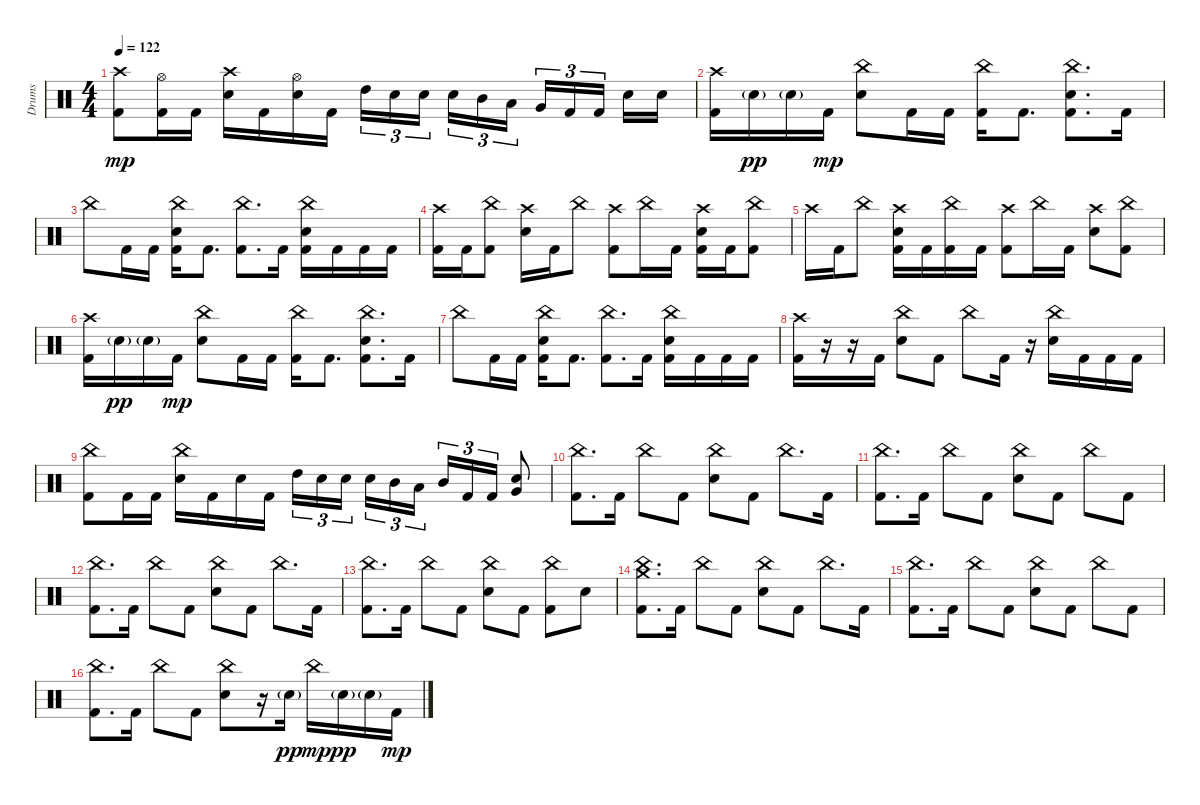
\track ("Drums" "Drums") {instrument percussion}
\staff {score}
\articulation defaults
\ts (4 4)
\tempo 122
\clef neutral
\ks c
("Crash high (hit)" "Kick (hit) 2").8{dy mp} ("Hi-Hat (open)" "Kick (hit) 2").16 "Kick (hit) 2".16 ("Crash high (hit)" "Electric Snare (hit)").16 "Kick (hit) 2".16 ("Hi-Hat (open)" "Electric Snare (hit)").16 "Kick (hit) 2".16 "High Tom (hit)".16{tu (3 2)} "Electric Snare (hit)".16{tu (3 2)} "Electric Snare (hit)".16{tu (3 2) beam splitsecondary} "Electric Snare (hit)".16{tu (3 2)} "Mid Tom (hit)".16{tu (3 2)} "Low Tom (hit)".16{tu (3 2)} "Very Low Tom (hit)".16{tu (3 2)} "Kick (hit) 2".16{tu (3 2)} "Kick (hit) 2".16{tu (3 2) beam splitsecondary} "Electric Snare (hit)".16 "Electric Snare (hit)".16 |
("Crash high (hit)" "Kick (hit) 2").16 "Electric Snare (hit)"{g}.16{dy pp} "Electric Snare (hit)"{g}.16 "Kick (hit) 2".16{dy mp} ("China (hit)" "Electric Snare (hit)").8 "Kick (hit) 2".16 "Kick (hit) 2".16 ("China (hit)" "Kick (hit) 2").16 "Kick (hit) 2".8{d} ("Electric Snare (hit)" "China (hit)" "Kick (hit) 2").8{d} "Kick (hit) 2".16 |
"China (hit)".8 "Kick (hit) 2".16 "Kick (hit) 2".16 ("China (hit)" "Electric Snare (hit)" "Kick (hit) 2").16 "Kick (hit) 2".8{d} ("China (hit)" "Kick (hit) 2").8{d} "Kick (hit) 2".16 ("China (hit)" "Electric Snare (hit)" "Kick (hit) 2").16 "Kick (hit) 2".16 "Kick (hit) 2".16 "Kick (hit) 2".16 |
("Crash high (hit)" "Kick (hit) 2").16 "Kick (hit) 2".16 ("China (hit)" "Kick (hit) 2").8 ("Crash high (hit)" "Electric Snare (hit)").16 "Kick (hit) 2".16 "China (hit)".8 ("Crash high (hit)" "Kick (hit) 2").8 "China (hit)".16 "Kick (hit) 2".16 ("Crash high (hit)" "Electric Snare (hit)" "Kick (hit) 2").16 "Kick (hit) 2".16 ("China (hit)" "Kick (hit) 2").8 |
"Crash high (hit)".16 "Kick (hit) 2".16 "China (hit)".8 ("Crash high (hit)" "Electric Snare (hit)" "Kick (hit) 2").16 "Kick (hit) 2".16 ("China (hit)" "Kick (hit) 2").16 "Kick (hit) 2".16 ("Crash high (hit)" "Kick (hit) 2").8 "China (hit)".16 "Kick (hit) 2".16 ("Crash high (hit)" "Electric Snare (hit)").8 ("China (hit)" "Kick (hit) 2").8 |
("Crash high (hit)" "Kick (hit) 2").16 "Electric Snare (hit)"{g}.16{dy pp} "Electric Snare (hit)"{g}.16 "Kick (hit) 2".16{dy mp} ("China (hit)" "Electric Snare (hit)").8 "Kick (hit) 2".16 "Kick (hit) 2".16 ("China (hit)" "Kick (hit) 2").16 "Kick (hit) 2".8{d} ("Electric Snare (hit)" "China (hit)" "Kick (hit) 2").8{d} "Kick (hit) 2".16 |
"China (hit)".8 "Kick (hit) 2".16 "Kick (hit) 2".16 ("China (hit)" "Electric Snare (hit)" "Kick (hit) 2").16 "Kick (hit) 2".8{d} ("China (hit)" "Kick (hit) 2").8{d} "Kick (hit) 2".16 ("China (hit)" "Electric Snare (hit)" "Kick (hit) 2").16 "Kick (hit) 2".16 "Kick (hit) 2".16 "Kick (hit) 2".16 |
("Crash high (hit)" "Kick (hit) 2").16 r.16 r.16 "Kick (hit) 2".16 ("China (hit)" "Electric Snare (hit)").8 "Kick (hit) 2".8 "China (hit)".8 "Kick (hit) 2".16 r.16 ("China (hit)" "Electric Snare (hit)").16 "Kick (hit) 2".16 "Kick (hit) 2".16 "Kick (hit) 2".16 |
("China (hit)" "Kick (hit) 2").8 "Kick (hit) 2".16 "Kick (hit) 2".16 ("China (hit)" "Electric Snare (hit)").16 "Kick (hit) 2".16 "Electric Snare (hit)".16 "Kick (hit) 2".16 "High Tom (hit)".16{tu (3 2)} "Electric Snare (hit)".16{tu (3 2)} "Electric Snare (hit)".16{tu (3 2) beam splitsecondary} "Electric Snare (hit)".16{tu (3 2)} "Mid Tom (hit)".16{tu (3 2)} "Low Tom (hit)".16{tu (3 2)} "Mid Tom (hit)".16{tu (3 2)} "Kick (hit) 2".16{tu (3 2)} "Kick (hit) 2".16{tu (3 2)} ("Electric Snare (hit)" "Very Low Tom (hit)").8 |
("China (hit)" "Kick (hit) 2").8{d} "Kick (hit) 2".16 "China (hit)".8 "Kick (hit) 2".8 ("China (hit)" "Electric Snare (hit)").8 "Kick (hit) 2".8 "China (hit)".8{d} "Kick (hit) 2".16 |
("China (hit)" "Kick (hit) 2").8{d} "Kick (hit) 2".16 "China (hit)".8 "Kick (hit) 2".8 ("China (hit)" "Electric Snare (hit)").8 "Kick (hit) 2".8 "China (hit)".8 "Kick (hit) 2".8 |
("China (hit)" "Kick (hit) 2").8{d} "Kick (hit) 2".16 "China (hit)".8 "Kick (hit) 2".8 ("China (hit)" "Electric Snare (hit)").8 "Kick (hit) 2".8 "China (hit)".8{d} "Kick (hit) 2".16 |
("China (hit)" "Kick (hit) 2").8{d} "Kick (hit) 2".16 "China (hit)".8 "Kick (hit) 2".8 ("China (hit)" "Electric Snare (hit)").8 "Kick (hit) 2".8 ("China (hit)" "Kick (hit) 2").8 "Electric Snare (hit)".8 |
("China (hit)" "Crash medium (hit)" "Kick (hit) 2").8{d} "Kick (hit) 2".16 "China (hit)".8 "Kick (hit) 2".8 ("China (hit)" "Electric Snare (hit)").8 "Kick (hit) 2".8 "China (hit)".8{d} "Kick (hit) 2".16 |
("China (hit)" "Kick (hit) 2").8{d} "Kick (hit) 2".16 "China (hit)".8 "Kick (hit) 2".8 ("China (hit)" "Electric Snare (hit)").8 "Kick (hit) 2".8 "China (hit)".8 "Kick (hit) 2".8 |
("China (hit)" "Kick (hit) 2").8{d} "Kick (hit) 2".16 "China (hit)".8 "Kick (hit) 2".8 ("China (hit)" "Electric Snare (hit)").8 r.16 "Electric Snare (hit)"{g}.16{dy pp} "China (hit)".16{dy mp} "Electric Snare (hit)"{g}.16{dy pp} "Electric Snare (hit)"{g}.16 "Kick (hit) 2".16{dy mp}
